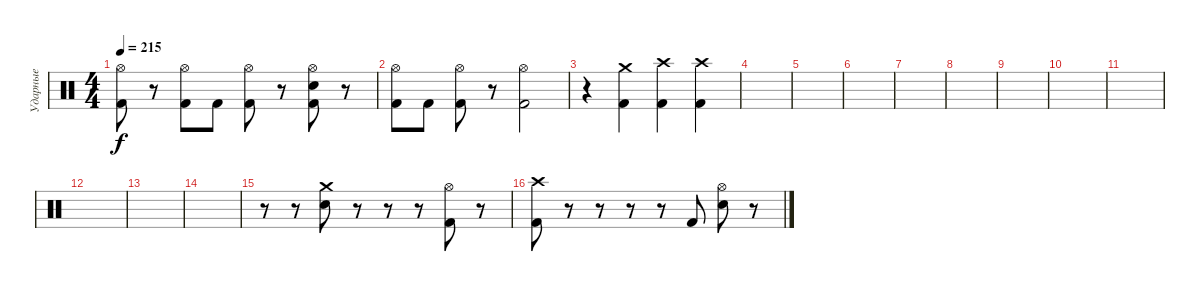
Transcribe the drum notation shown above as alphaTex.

\track ("Ударные" "Ударные") {instrument percussion}
\staff {score}
\articulation defaults
\ts (4 4)
\tempo 215
\clef neutral
\ks c
("Hi-Hat (open)" "Kick (hit) 2").8{dy f} r.8 ("Hi-Hat (open)" "Kick (hit) 2").8 "Kick (hit) 2".8 ("Hi-Hat (open)" "Kick (hit) 2").8 r.8 ("Hi-Hat (open)" "Snare (hit) 2" "Kick (hit) 2").8 r.8 |
("Hi-Hat (open)" "Kick (hit) 2").8 "Kick (hit) 2".8 ("Hi-Hat (open)" "Kick (hit) 2").8 r.8 ("Hi-Hat (open)" "Kick (hit) 2").2 |
r.4 ("Crash medium (hit)" "Kick (hit) 2").4 ("Crash high (hit)" "Kick (hit) 2").4 ("Crash high (hit)" "Kick (hit) 2").4 |
|
|
|
|
|
|
|
|
|
|
|
r.8 r.8 ("Crash medium (hit)" "Snare (hit) 2").8 r.8 r.8 r.8 ("Hi-Hat (open)" "Kick (hit) 2").8 r.8 |
("Crash high (hit)" "Kick (hit) 2").8 r.8 r.8 r.8 r.8 "Kick (hit) 2".8 ("Hi-Hat (open)" "Snare (hit) 2").8 r.8
